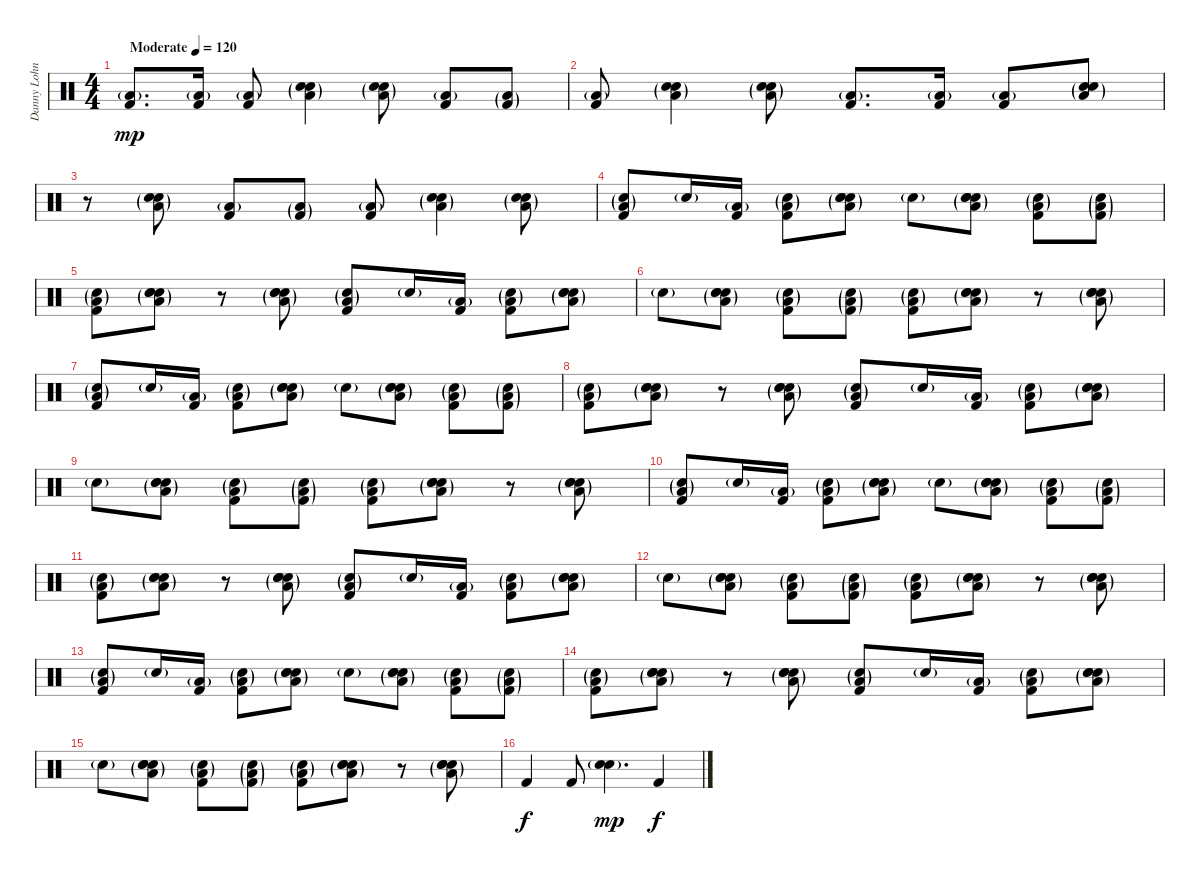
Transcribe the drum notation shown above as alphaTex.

\track ("Danny Lohner" "Danny Lohn") {instrument percussion}
\staff {score}
\articulation defaults
\ts (4 4)
\tempo (120 "Moderate")
\clef neutral
\ks c
("Low Floor Tom (hit)"{g} "Kick (hit) 2").8{d dy mp} ("Low Floor Tom (hit)"{g} "Kick (hit) 2").16 ("Low Floor Tom (hit)"{g} "Kick (hit) 2").8 ("Hand Clap (hit)" "Low Tom (hit)"{g} "Electric Snare (hit)"{g}).4 ("Hand Clap (hit)" "Low Floor Tom (hit)"{g} "Electric Snare (hit)"{g}).8 ("Low Floor Tom (hit)"{g} "Kick (hit) 2").8 ("Low Floor Tom (hit)"{g} "Kick (hit) 2"{g}).8 |
("Low Floor Tom (hit)"{g} "Kick (hit) 2").8 ("Hand Clap (hit)" "Low Tom (hit)"{g} "Electric Snare (hit)"{g}).4 ("Hand Clap (hit)" "Low Floor Tom (hit)"{g} "Electric Snare (hit)"{g}).8 ("Low Floor Tom (hit)"{g} "Kick (hit) 2").8{d} ("Low Floor Tom (hit)"{g} "Kick (hit) 2").16 ("Low Floor Tom (hit)"{g} "Kick (hit) 2").8 ("Hand Clap (hit)" "Low Tom (hit)"{g} "Electric Snare (hit)"{g}).8 |
r.8 ("Hand Clap (hit)" "Low Floor Tom (hit)"{g} "Electric Snare (hit)"{g}).8 ("Low Floor Tom (hit)"{g} "Kick (hit) 2").8 ("Low Floor Tom (hit)"{g} "Kick (hit) 2"{g}).8 ("Low Floor Tom (hit)"{g} "Kick (hit) 2").8 ("Hand Clap (hit)" "Low Tom (hit)"{g} "Electric Snare (hit)"{g}).4 ("Hand Clap (hit)" "Low Floor Tom (hit)"{g} "Electric Snare (hit)"{g}).8 |
("Low Floor Tom (hit)"{g} "Electric Snare (hit)"{g} "Kick (hit) 2").8 "Electric Snare (hit)"{g}.16 ("Low Floor Tom (hit)"{g} "Kick (hit) 2").16 ("Low Floor Tom (hit)"{g} "Electric Snare (hit)"{g} "Kick (hit) 2").8 ("Hand Clap (hit)" "Low Tom (hit)"{g} "Electric Snare (hit)"{g} "Electric Snare (hit)"{g}).8 "Electric Snare (hit)"{g}.8 ("Hand Clap (hit)" "Low Floor Tom (hit)"{g} "Electric Snare (hit)"{g} "Electric Snare (hit)"{g}).8 ("Low Floor Tom (hit)"{g} "Electric Snare (hit)"{g} "Kick (hit) 2").8 ("Low Floor Tom (hit)"{g} "Electric Snare (hit)"{g} "Kick (hit) 2"{g}).8 |
("Low Floor Tom (hit)"{g} "Electric Snare (hit)"{g} "Kick (hit) 2").8 ("Hand Clap (hit)" "Low Tom (hit)"{g} "Electric Snare (hit)"{g} "Electric Snare (hit)"{g}).8 r.8 ("Hand Clap (hit)" "Low Floor Tom (hit)"{g} "Electric Snare (hit)"{g} "Electric Snare (hit)"{g}).8 ("Low Floor Tom (hit)"{g} "Electric Snare (hit)"{g} "Kick (hit) 2").8 "Electric Snare (hit)"{g}.16 ("Low Floor Tom (hit)"{g} "Kick (hit) 2").16 ("Low Floor Tom (hit)"{g} "Electric Snare (hit)"{g} "Kick (hit) 2").8 ("Hand Clap (hit)" "Low Tom (hit)"{g} "Electric Snare (hit)"{g} "Electric Snare (hit)"{g}).8 |
"Electric Snare (hit)"{g}.8 ("Hand Clap (hit)" "Low Floor Tom (hit)"{g} "Electric Snare (hit)"{g} "Electric Snare (hit)"{g}).8 ("Low Floor Tom (hit)"{g} "Electric Snare (hit)"{g} "Kick (hit) 2").8 ("Low Floor Tom (hit)"{g} "Electric Snare (hit)"{g} "Kick (hit) 2"{g}).8 ("Low Floor Tom (hit)"{g} "Electric Snare (hit)"{g} "Kick (hit) 2").8 ("Hand Clap (hit)" "Low Tom (hit)"{g} "Electric Snare (hit)"{g} "Electric Snare (hit)"{g}).8 r.8 ("Hand Clap (hit)" "Low Floor Tom (hit)"{g} "Electric Snare (hit)"{g} "Electric Snare (hit)"{g}).8 |
("Low Floor Tom (hit)"{g} "Electric Snare (hit)"{g} "Kick (hit) 2").8 "Electric Snare (hit)"{g}.16 ("Low Floor Tom (hit)"{g} "Kick (hit) 2").16 ("Low Floor Tom (hit)"{g} "Electric Snare (hit)"{g} "Kick (hit) 2").8 ("Hand Clap (hit)" "Low Tom (hit)"{g} "Electric Snare (hit)"{g} "Electric Snare (hit)"{g}).8 "Electric Snare (hit)"{g}.8 ("Hand Clap (hit)" "Low Floor Tom (hit)"{g} "Electric Snare (hit)"{g} "Electric Snare (hit)"{g}).8 ("Low Floor Tom (hit)"{g} "Electric Snare (hit)"{g} "Kick (hit) 2").8 ("Low Floor Tom (hit)"{g} "Electric Snare (hit)"{g} "Kick (hit) 2"{g}).8 |
("Low Floor Tom (hit)"{g} "Electric Snare (hit)"{g} "Kick (hit) 2").8 ("Hand Clap (hit)" "Low Tom (hit)"{g} "Electric Snare (hit)"{g} "Electric Snare (hit)"{g}).8 r.8 ("Hand Clap (hit)" "Low Floor Tom (hit)"{g} "Electric Snare (hit)"{g} "Electric Snare (hit)"{g}).8 ("Low Floor Tom (hit)"{g} "Electric Snare (hit)"{g} "Kick (hit) 2").8 "Electric Snare (hit)"{g}.16 ("Low Floor Tom (hit)"{g} "Kick (hit) 2").16 ("Low Floor Tom (hit)"{g} "Electric Snare (hit)"{g} "Kick (hit) 2").8 ("Hand Clap (hit)" "Low Tom (hit)"{g} "Electric Snare (hit)"{g} "Electric Snare (hit)"{g}).8 |
"Electric Snare (hit)"{g}.8 ("Hand Clap (hit)" "Low Floor Tom (hit)"{g} "Electric Snare (hit)"{g} "Electric Snare (hit)"{g}).8 ("Low Floor Tom (hit)"{g} "Electric Snare (hit)"{g} "Kick (hit) 2").8 ("Low Floor Tom (hit)"{g} "Electric Snare (hit)"{g} "Kick (hit) 2"{g}).8 ("Low Floor Tom (hit)"{g} "Electric Snare (hit)"{g} "Kick (hit) 2").8 ("Hand Clap (hit)" "Low Tom (hit)"{g} "Electric Snare (hit)"{g} "Electric Snare (hit)"{g}).8 r.8 ("Hand Clap (hit)" "Low Floor Tom (hit)"{g} "Electric Snare (hit)"{g} "Electric Snare (hit)"{g}).8 |
("Low Floor Tom (hit)"{g} "Electric Snare (hit)"{g} "Kick (hit) 2").8 "Electric Snare (hit)"{g}.16 ("Low Floor Tom (hit)"{g} "Kick (hit) 2").16 ("Low Floor Tom (hit)"{g} "Electric Snare (hit)"{g} "Kick (hit) 2").8 ("Hand Clap (hit)" "Low Tom (hit)"{g} "Electric Snare (hit)"{g} "Electric Snare (hit)"{g}).8 "Electric Snare (hit)"{g}.8 ("Hand Clap (hit)" "Low Floor Tom (hit)"{g} "Electric Snare (hit)"{g} "Electric Snare (hit)"{g}).8 ("Low Floor Tom (hit)"{g} "Electric Snare (hit)"{g} "Kick (hit) 2").8 ("Low Floor Tom (hit)"{g} "Electric Snare (hit)"{g} "Kick (hit) 2"{g}).8 |
("Low Floor Tom (hit)"{g} "Electric Snare (hit)"{g} "Kick (hit) 2").8 ("Hand Clap (hit)" "Low Tom (hit)"{g} "Electric Snare (hit)"{g} "Electric Snare (hit)"{g}).8 r.8 ("Hand Clap (hit)" "Low Floor Tom (hit)"{g} "Electric Snare (hit)"{g} "Electric Snare (hit)"{g}).8 ("Low Floor Tom (hit)"{g} "Electric Snare (hit)"{g} "Kick (hit) 2").8 "Electric Snare (hit)"{g}.16 ("Low Floor Tom (hit)"{g} "Kick (hit) 2").16 ("Low Floor Tom (hit)"{g} "Electric Snare (hit)"{g} "Kick (hit) 2").8 ("Hand Clap (hit)" "Low Tom (hit)"{g} "Electric Snare (hit)"{g} "Electric Snare (hit)"{g}).8 |
"Electric Snare (hit)"{g}.8 ("Hand Clap (hit)" "Low Floor Tom (hit)"{g} "Electric Snare (hit)"{g} "Electric Snare (hit)"{g}).8 ("Low Floor Tom (hit)"{g} "Electric Snare (hit)"{g} "Kick (hit) 2").8 ("Low Floor Tom (hit)"{g} "Electric Snare (hit)"{g} "Kick (hit) 2"{g}).8 ("Low Floor Tom (hit)"{g} "Electric Snare (hit)"{g} "Kick (hit) 2").8 ("Hand Clap (hit)" "Low Tom (hit)"{g} "Electric Snare (hit)"{g} "Electric Snare (hit)"{g}).8 r.8 ("Hand Clap (hit)" "Low Floor Tom (hit)"{g} "Electric Snare (hit)"{g} "Electric Snare (hit)"{g}).8 |
("Low Floor Tom (hit)"{g} "Electric Snare (hit)"{g} "Kick (hit) 2").8 "Electric Snare (hit)"{g}.16 ("Low Floor Tom (hit)"{g} "Kick (hit) 2").16 ("Low Floor Tom (hit)"{g} "Electric Snare (hit)"{g} "Kick (hit) 2").8 ("Hand Clap (hit)" "Low Tom (hit)"{g} "Electric Snare (hit)"{g} "Electric Snare (hit)"{g}).8 "Electric Snare (hit)"{g}.8 ("Hand Clap (hit)" "Low Floor Tom (hit)"{g} "Electric Snare (hit)"{g} "Electric Snare (hit)"{g}).8 ("Low Floor Tom (hit)"{g} "Electric Snare (hit)"{g} "Kick (hit) 2").8 ("Low Floor Tom (hit)"{g} "Electric Snare (hit)"{g} "Kick (hit) 2"{g}).8 |
("Low Floor Tom (hit)"{g} "Electric Snare (hit)"{g} "Kick (hit) 2").8 ("Hand Clap (hit)" "Low Tom (hit)"{g} "Electric Snare (hit)"{g} "Electric Snare (hit)"{g}).8 r.8 ("Hand Clap (hit)" "Low Floor Tom (hit)"{g} "Electric Snare (hit)"{g} "Electric Snare (hit)"{g}).8 ("Low Floor Tom (hit)"{g} "Electric Snare (hit)"{g} "Kick (hit) 2").8 "Electric Snare (hit)"{g}.16 ("Low Floor Tom (hit)"{g} "Kick (hit) 2").16 ("Low Floor Tom (hit)"{g} "Electric Snare (hit)"{g} "Kick (hit) 2").8 ("Hand Clap (hit)" "Low Tom (hit)"{g} "Electric Snare (hit)"{g} "Electric Snare (hit)"{g}).8 |
"Electric Snare (hit)"{g}.8 ("Hand Clap (hit)" "Low Floor Tom (hit)"{g} "Electric Snare (hit)"{g} "Electric Snare (hit)"{g}).8 ("Low Floor Tom (hit)"{g} "Electric Snare (hit)"{g} "Kick (hit) 2").8 ("Low Floor Tom (hit)"{g} "Electric Snare (hit)"{g} "Kick (hit) 2"{g}).8 ("Low Floor Tom (hit)"{g} "Electric Snare (hit)"{g} "Kick (hit) 2").8 ("Hand Clap (hit)" "Low Tom (hit)"{g} "Electric Snare (hit)"{g} "Electric Snare (hit)"{g}).8 r.8 ("Hand Clap (hit)" "Low Floor Tom (hit)"{g} "Electric Snare (hit)"{g} "Electric Snare (hit)"{g}).8 |
"Kick (hit) 2".4{dy f} "Kick (hit) 2".8 ("Hand Clap (hit)"{g} "Electric Snare (hit)"{g}).4{d dy mp} "Kick (hit) 2".4{dy f}
